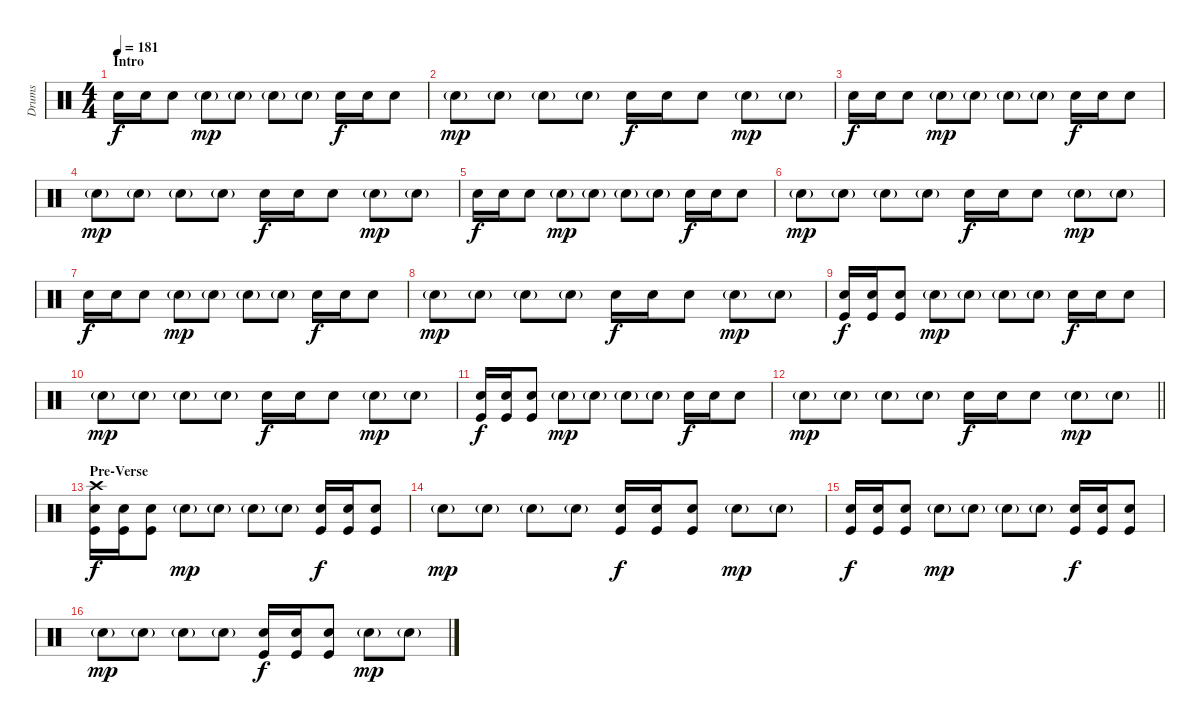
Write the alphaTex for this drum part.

\track ("Drums" "Drums") {instrument percussion}
\staff {score}
\articulation defaults
\ts (4 4)
\section ("" "Intro")
\tempo 181
\clef neutral
\ks c "Snare (hit) 2".16{dy f volume 0} "Snare (hit) 2".16{volume 7} "Snare (hit) 2".8 "Snare (hit) 2"{g}.8{dy mp} "Snare (hit) 2"{g}.8 "Snare (hit) 2"{g}.8 "Snare (hit) 2"{g}.8 "Snare (hit) 2".16{dy f} "Snare (hit) 2".16 "Snare (hit) 2".8
|
"Snare (hit) 2"{g}.8{dy mp} "Snare (hit) 2"{g}.8 "Snare (hit) 2"{g}.8 "Snare (hit) 2"{g}.8 "Snare (hit) 2".16{dy f} "Snare (hit) 2".16 "Snare (hit) 2".8 "Snare (hit) 2"{g}.8{dy mp} "Snare (hit) 2"{g}.8 |
"Snare (hit) 2".16{dy f} "Snare (hit) 2".16 "Snare (hit) 2".8 "Snare (hit) 2"{g}.8{dy mp} "Snare (hit) 2"{g}.8 "Snare (hit) 2"{g}.8 "Snare (hit) 2"{g}.8 "Snare (hit) 2".16{dy f} "Snare (hit) 2".16 "Snare (hit) 2".8 |
"Snare (hit) 2"{g}.8{dy mp} "Snare (hit) 2"{g}.8 "Snare (hit) 2"{g}.8 "Snare (hit) 2"{g}.8 "Snare (hit) 2".16{dy f} "Snare (hit) 2".16 "Snare (hit) 2".8 "Snare (hit) 2"{g}.8{dy mp} "Snare (hit) 2"{g}.8 |
"Snare (hit) 2".16{dy f volume 13} "Snare (hit) 2".16 "Snare (hit) 2".8 "Snare (hit) 2"{g}.8{dy mp} "Snare (hit) 2"{g}.8 "Snare (hit) 2"{g}.8 "Snare (hit) 2"{g}.8 "Snare (hit) 2".16{dy f} "Snare (hit) 2".16 "Snare (hit) 2".8 |
"Snare (hit) 2"{g}.8{dy mp} "Snare (hit) 2"{g}.8 "Snare (hit) 2"{g}.8 "Snare (hit) 2"{g}.8 "Snare (hit) 2".16{dy f} "Snare (hit) 2".16 "Snare (hit) 2".8 "Snare (hit) 2"{g}.8{dy mp} "Snare (hit) 2"{g}.8 |
"Snare (hit) 2".16{dy f} "Snare (hit) 2".16 "Snare (hit) 2".8 "Snare (hit) 2"{g}.8{dy mp} "Snare (hit) 2"{g}.8 "Snare (hit) 2"{g}.8 "Snare (hit) 2"{g}.8 "Snare (hit) 2".16{dy f} "Snare (hit) 2".16 "Snare (hit) 2".8 |
"Snare (hit) 2"{g}.8{dy mp} "Snare (hit) 2"{g}.8 "Snare (hit) 2"{g}.8 "Snare (hit) 2"{g}.8 "Snare (hit) 2".16{dy f} "Snare (hit) 2".16 "Snare (hit) 2".8 "Snare (hit) 2"{g}.8{dy mp} "Snare (hit) 2"{g}.8 |
("Snare (hit) 2" "Kick (hit)").16{dy f} ("Snare (hit) 2" "Kick (hit)").16 ("Snare (hit) 2" "Kick (hit)").8 "Snare (hit) 2"{g}.8{dy mp} "Snare (hit) 2"{g}.8 "Snare (hit) 2"{g}.8 "Snare (hit) 2"{g}.8 "Snare (hit) 2".16{dy f} "Snare (hit) 2".16 "Snare (hit) 2".8 |
"Snare (hit) 2"{g}.8{dy mp} "Snare (hit) 2"{g}.8 "Snare (hit) 2"{g}.8 "Snare (hit) 2"{g}.8 "Snare (hit) 2".16{dy f} "Snare (hit) 2".16 "Snare (hit) 2".8 "Snare (hit) 2"{g}.8{dy mp} "Snare (hit) 2"{g}.8 |
("Snare (hit) 2" "Kick (hit)").16{dy f} ("Snare (hit) 2" "Kick (hit)").16 ("Snare (hit) 2" "Kick (hit)").8 "Snare (hit) 2"{g}.8{dy mp} "Snare (hit) 2"{g}.8 "Snare (hit) 2"{g}.8 "Snare (hit) 2"{g}.8 "Snare (hit) 2".16{dy f} "Snare (hit) 2".16 "Snare (hit) 2".8 |
\barLineRight lightlight "Snare (hit) 2"{g}.8{dy mp} "Snare (hit) 2"{g}.8 "Snare (hit) 2"{g}.8 "Snare (hit) 2"{g}.8 "Snare (hit) 2".16{dy f} "Snare (hit) 2".16 "Snare (hit) 2".8 "Snare (hit) 2"{g}.8{dy mp} "Snare (hit) 2"{g}.8
|
\section ("" "Pre-Verse")
("Crash high (hit)" "Snare (hit) 2" "Kick (hit)").16{dy f} ("Snare (hit) 2" "Kick (hit)").16 ("Snare (hit) 2" "Kick (hit)").8 "Snare (hit) 2"{g}.8{dy mp} "Snare (hit) 2"{g}.8 "Snare (hit) 2"{g}.8 "Snare (hit) 2"{g}.8 ("Snare (hit) 2" "Kick (hit)").16{dy f} ("Snare (hit) 2" "Kick (hit)").16 ("Snare (hit) 2" "Kick (hit)").8 |
"Snare (hit) 2"{g}.8{dy mp} "Snare (hit) 2"{g}.8 "Snare (hit) 2"{g}.8 "Snare (hit) 2"{g}.8 ("Snare (hit) 2" "Kick (hit)").16{dy f} ("Snare (hit) 2" "Kick (hit)").16 ("Snare (hit) 2" "Kick (hit)").8 "Snare (hit) 2"{g}.8{dy mp} "Snare (hit) 2"{g}.8 |
("Snare (hit) 2" "Kick (hit)").16{dy f} ("Snare (hit) 2" "Kick (hit)").16 ("Snare (hit) 2" "Kick (hit)").8 "Snare (hit) 2"{g}.8{dy mp} "Snare (hit) 2"{g}.8 "Snare (hit) 2"{g}.8 "Snare (hit) 2"{g}.8 ("Snare (hit) 2" "Kick (hit)").16{dy f} ("Snare (hit) 2" "Kick (hit)").16 ("Snare (hit) 2" "Kick (hit)").8 |
"Snare (hit) 2"{g}.8{dy mp} "Snare (hit) 2"{g}.8 "Snare (hit) 2"{g}.8 "Snare (hit) 2"{g}.8 ("Snare (hit) 2" "Kick (hit)").16{dy f} ("Snare (hit) 2" "Kick (hit)").16 ("Snare (hit) 2" "Kick (hit)").8 "Snare (hit) 2"{g}.8{dy mp} "Snare (hit) 2"{g}.8
